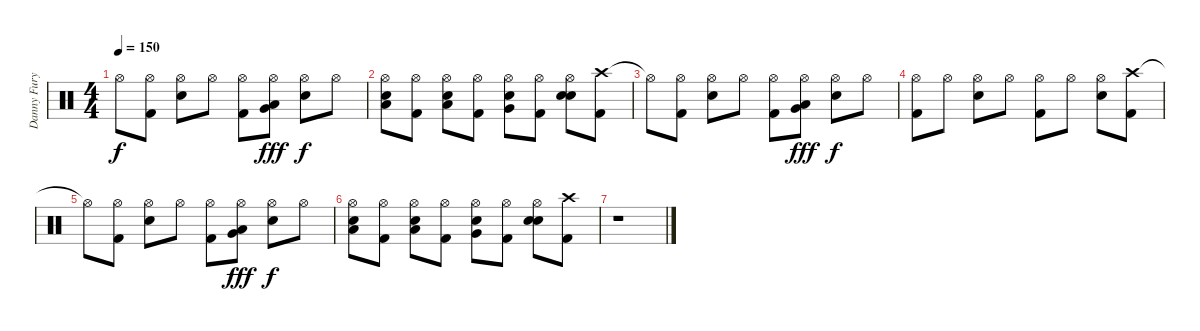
\track ("Danny Fury" "Danny Fury") {instrument percussion}
\staff {score}
\articulation defaults
\ts (4 4)
\tempo 150
\clef neutral
\ks c "Hi-Hat (open)"{t}.8{dy f}
("Hi-Hat (open)" "Kick (hit) 2").8 ("Hi-Hat (open)" "Electric Snare (hit)").8 "Hi-Hat (open)".8 ("Hi-Hat (open)" "Kick (hit) 2").8 ("Hi-Hat (open)" "Low Floor Tom (hit)" "Very Low Tom (hit)").8{dy fff} ("Hi-Hat (open)" "Electric Snare (hit)").8{dy f} "Hi-Hat (open)".8 |
("Hi-Hat (open)" "Low Tom (hit)" "Electric Snare (hit)").8 ("Hi-Hat (open)" "Kick (hit) 2").8 ("Hi-Hat (open)" "Low Floor Tom (hit)" "Electric Snare (hit)").8 ("Hi-Hat (open)" "Kick (hit) 2").8 ("Hi-Hat (open)" "Very Low Tom (hit)" "Electric Snare (hit)").8 ("Hi-Hat (open)" "Kick (hit) 2").8 ("Hi-Hat (open)" "Snare (hit) 2" "Electric Snare (hit)").8 ("Crash high (hit)" "Kick (hit) 2").8 |
"Hi-Hat (open)"{t}.8 ("Hi-Hat (open)" "Kick (hit) 2").8 ("Hi-Hat (open)" "Electric Snare (hit)").8 "Hi-Hat (open)".8 ("Hi-Hat (open)" "Kick (hit) 2").8 ("Hi-Hat (open)" "Low Floor Tom (hit)" "Very Low Tom (hit)").8{dy fff} ("Hi-Hat (open)" "Electric Snare (hit)").8{dy f} "Hi-Hat (open)".8 |
("Hi-Hat (open)" "Kick (hit) 2").8 "Hi-Hat (open)".8 ("Hi-Hat (open)" "Electric Snare (hit)").8 "Hi-Hat (open)".8 ("Hi-Hat (open)" "Kick (hit) 2").8 "Hi-Hat (open)".8 ("Hi-Hat (open)" "Electric Snare (hit)").8 ("Crash high (hit)" "Kick (hit) 2").8 |
"Hi-Hat (open)"{t}.8{volume 0} ("Hi-Hat (open)" "Kick (hit) 2").8 ("Hi-Hat (open)" "Electric Snare (hit)").8 "Hi-Hat (open)".8 ("Hi-Hat (open)" "Kick (hit) 2").8 ("Hi-Hat (open)" "Low Floor Tom (hit)" "Very Low Tom (hit)").8{dy fff} ("Hi-Hat (open)" "Electric Snare (hit)").8{dy f} "Hi-Hat (open)".8 |
("Hi-Hat (open)" "Low Tom (hit)" "Electric Snare (hit)").8 ("Hi-Hat (open)" "Kick (hit) 2").8 ("Hi-Hat (open)" "Low Floor Tom (hit)" "Electric Snare (hit)").8 ("Hi-Hat (open)" "Kick (hit) 2").8 ("Hi-Hat (open)" "Very Low Tom (hit)" "Electric Snare (hit)").8 ("Hi-Hat (open)" "Kick (hit) 2").8 ("Hi-Hat (open)" "Snare (hit) 2" "Electric Snare (hit)").8 ("Crash high (hit)" "Kick (hit) 2").8 |
r.1
